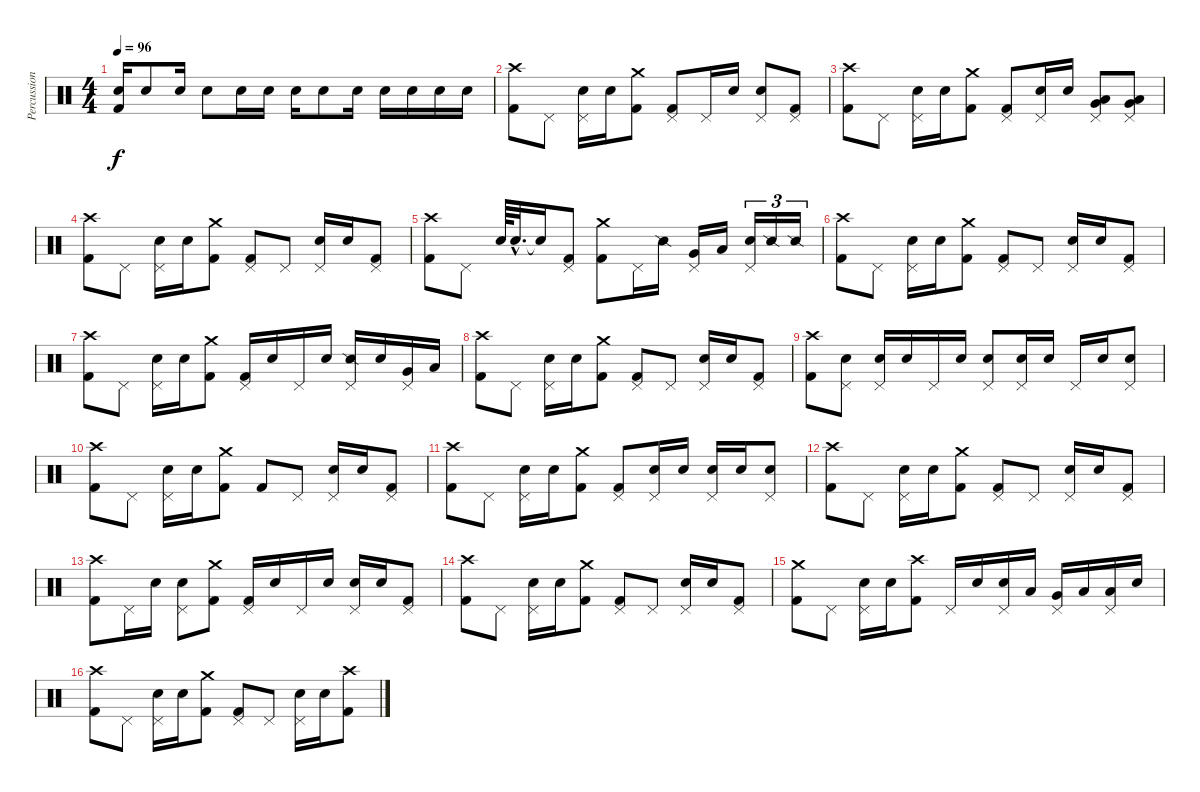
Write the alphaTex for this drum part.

\track ("Percussion" "Percussion") {instrument percussion}
\staff {score}
\articulation defaults
\ts (4 4)
\tempo 96
\clef neutral
\ks c
("Electric Snare (hit)" "Kick (hit) 2").16{dy f} "Electric Snare (hit)".8 "Electric Snare (hit)".16 "Electric Snare (hit)".8 "Electric Snare (hit)".16 "Electric Snare (hit)".16 "Electric Snare (hit)".16 "Electric Snare (hit)".8 "Electric Snare (hit)".16 "Electric Snare (hit)".16 "Electric Snare (hit)".16 "Electric Snare (hit)".16 "Electric Snare (hit)".16 |
("Crash high (hit)" "Kick (hit) 2").8 "Pedal Hi-Hat (hit)".8 ("Pedal Hi-Hat (hit)" "Electric Snare (hit)").16 "Electric Snare (hit)".16 ("Crash medium (hit)" "Kick (hit) 2").8 ("Pedal Hi-Hat (hit)" "Kick (hit) 2").8 "Pedal Hi-Hat (hit)".16 "Electric Snare (hit)".16 ("Pedal Hi-Hat (hit)" "Electric Snare (hit)").8 ("Pedal Hi-Hat (hit)" "Kick (hit) 2").8 |
("Crash high (hit)" "Kick (hit) 2").8 "Pedal Hi-Hat (hit)".8 ("Pedal Hi-Hat (hit)" "Electric Snare (hit)").16 "Electric Snare (hit)".16 ("Crash medium (hit)" "Kick (hit) 2").8 ("Pedal Hi-Hat (hit)" "Kick (hit) 2").8 ("Pedal Hi-Hat (hit)" "Electric Snare (hit)").16 "Electric Snare (hit)".16 ("Pedal Hi-Hat (hit)" "Low Tom (hit)" "Very Low Tom (hit)").8 ("Pedal Hi-Hat (hit)" "Very Low Tom (hit)" "Low Floor Tom (hit)").8 |
("Crash high (hit)" "Kick (hit) 2").8 "Pedal Hi-Hat (hit)".8 ("Pedal Hi-Hat (hit)" "Electric Snare (hit)").16 "Electric Snare (hit)".16 ("Crash medium (hit)" "Kick (hit) 2").8 ("Pedal Hi-Hat (hit)" "Kick (hit) 2").8 "Pedal Hi-Hat (hit)".8 ("Pedal Hi-Hat (hit)" "Electric Snare (hit)").16 "Electric Snare (hit)".16 ("Pedal Hi-Hat (hit)" "Kick (hit) 2").8 |
("Crash high (hit)" "Kick (hit) 2").8 "Pedal Hi-Hat (hit)".8 "Electric Snare (hit)".64 "Electric Snare (hit)"{hac}.32{d} "Snare (hit)"{t}.16 ("Pedal Hi-Hat (hit)" "Kick (hit) 2").8 ("Crash medium (hit)" "Kick (hit) 2").8 "Pedal Hi-Hat (hit)".16 "Snare (side stick) 2".16 ("Pedal Hi-Hat (hit)" "Very Low Tom (hit)").16 "Low Floor Tom (hit)".16 ("Pedal Hi-Hat (hit)" "Electric Snare (hit)").16{tu (3 2)} "Snare (side stick) 2".16{tu (3 2)} "Snare (side stick) 2".16{tu (3 2)} |
("Crash high (hit)" "Kick (hit) 2").8 "Pedal Hi-Hat (hit)".8 ("Pedal Hi-Hat (hit)" "Electric Snare (hit)").16 "Electric Snare (hit)".16 ("Crash medium (hit)" "Kick (hit) 2").8 ("Pedal Hi-Hat (hit)" "Kick (hit) 2").8 "Pedal Hi-Hat (hit)".8 ("Pedal Hi-Hat (hit)" "Electric Snare (hit)").16 "Electric Snare (hit)".16 ("Pedal Hi-Hat (hit)" "Kick (hit) 2").8 |
("Crash high (hit)" "Kick (hit) 2").8 "Pedal Hi-Hat (hit)".8 ("Pedal Hi-Hat (hit)" "Electric Snare (hit)").16 "Electric Snare (hit)".16 ("Crash medium (hit)" "Kick (hit) 2").8 ("Pedal Hi-Hat (hit)" "Kick (hit) 2").16 "Electric Snare (hit)".16 "Pedal Hi-Hat (hit)".16 "Electric Snare (hit)".16 ("Pedal Hi-Hat (hit)" "Snare (side stick) 2").16 "Electric Snare (hit)".16 ("Pedal Hi-Hat (hit)" "Very Low Tom (hit)").16 "Low Floor Tom (hit)".16 |
("Crash high (hit)" "Kick (hit) 2").8 "Pedal Hi-Hat (hit)".8 ("Pedal Hi-Hat (hit)" "Electric Snare (hit)").16 "Electric Snare (hit)".16 ("Crash medium (hit)" "Kick (hit) 2").8 ("Pedal Hi-Hat (hit)" "Kick (hit) 2").8 "Pedal Hi-Hat (hit)".8 ("Pedal Hi-Hat (hit)" "Electric Snare (hit)").16 "Electric Snare (hit)".16 ("Pedal Hi-Hat (hit)" "Kick (hit) 2").8 |
("Crash high (hit)" "Kick (hit) 2").8 ("Pedal Hi-Hat (hit)" "Electric Snare (hit)").8 ("Pedal Hi-Hat (hit)" "Electric Snare (hit)").16 "Electric Snare (hit)".16 "Pedal Hi-Hat (hit)".16 "Electric Snare (hit)".16 ("Pedal Hi-Hat (hit)" "Electric Snare (hit)").8 ("Pedal Hi-Hat (hit)" "Electric Snare (hit)").16 "Electric Snare (hit)".16 "Pedal Hi-Hat (hit)".16 "Electric Snare (hit)".16 ("Pedal Hi-Hat (hit)" "Electric Snare (hit)").8 |
("Crash high (hit)" "Kick (hit) 2").8 "Pedal Hi-Hat (hit)".8 ("Pedal Hi-Hat (hit)" "Electric Snare (hit)").16 "Electric Snare (hit)".16 ("Crash medium (hit)" "Kick (hit) 2").8 "Kick (hit) 2".8 "Pedal Hi-Hat (hit)".8 ("Pedal Hi-Hat (hit)" "Electric Snare (hit)").16 "Electric Snare (hit)".16 ("Pedal Hi-Hat (hit)" "Kick (hit) 2").8 |
("Crash high (hit)" "Kick (hit) 2").8 "Pedal Hi-Hat (hit)".8 ("Pedal Hi-Hat (hit)" "Electric Snare (hit)").16 "Electric Snare (hit)".16 ("Crash medium (hit)" "Kick (hit) 2").8 ("Pedal Hi-Hat (hit)" "Kick (hit) 2").8 ("Pedal Hi-Hat (hit)" "Electric Snare (hit)").16 "Electric Snare (hit)".16 ("Pedal Hi-Hat (hit)" "Electric Snare (hit)").16 "Electric Snare (hit)".16 ("Pedal Hi-Hat (hit)" "Electric Snare (hit)").8 |
("Crash high (hit)" "Kick (hit) 2").8 "Pedal Hi-Hat (hit)".8 ("Pedal Hi-Hat (hit)" "Electric Snare (hit)").16 "Electric Snare (hit)".16 ("Crash medium (hit)" "Kick (hit) 2").8 ("Pedal Hi-Hat (hit)" "Kick (hit) 2").8 "Pedal Hi-Hat (hit)".8 ("Pedal Hi-Hat (hit)" "Electric Snare (hit)").16 "Electric Snare (hit)".16 ("Pedal Hi-Hat (hit)" "Kick (hit) 2").8 |
("Crash high (hit)" "Kick (hit) 2").8 "Pedal Hi-Hat (hit)".16 "Electric Snare (hit)".16 ("Pedal Hi-Hat (hit)" "Electric Snare (hit)").8 ("Crash medium (hit)" "Kick (hit) 2").8 ("Pedal Hi-Hat (hit)" "Kick (hit) 2").16 "Electric Snare (hit)".16 "Pedal Hi-Hat (hit)".16 "Electric Snare (hit)".16 ("Pedal Hi-Hat (hit)" "Electric Snare (hit)").16 "Electric Snare (hit)".16 ("Pedal Hi-Hat (hit)" "Kick (hit) 2").8 |
("Crash high (hit)" "Kick (hit) 2").8 "Pedal Hi-Hat (hit)".8 ("Pedal Hi-Hat (hit)" "Electric Snare (hit)").16 "Electric Snare (hit)".16 ("Crash medium (hit)" "Kick (hit) 2").8 ("Pedal Hi-Hat (hit)" "Kick (hit) 2").8 "Pedal Hi-Hat (hit)".8 ("Pedal Hi-Hat (hit)" "Electric Snare (hit)").16 "Electric Snare (hit)".16 ("Pedal Hi-Hat (hit)" "Kick (hit) 2").8 |
("Crash medium (hit)" "Kick (hit) 2").8 "Pedal Hi-Hat (hit)".8 ("Pedal Hi-Hat (hit)" "Electric Snare (hit)").16 "Electric Snare (hit)".16 ("Crash high (hit)" "Kick (hit) 2").8 "Pedal Hi-Hat (hit)".16 "Electric Snare (hit)".16 ("Pedal Hi-Hat (hit)" "Electric Snare (hit)").16 "Low Tom (hit)".16 ("Pedal Hi-Hat (hit)" "Very Low Tom (hit)").16 "Low Floor Tom (hit)".16 ("Pedal Hi-Hat (hit)" "Low Floor Tom (hit)").16 "Snare (hit)".16 |
("Crash high (hit)" "Kick (hit) 2").8 "Pedal Hi-Hat (hit)".8 ("Pedal Hi-Hat (hit)" "Electric Snare (hit)").16 "Electric Snare (hit)".16 ("Crash medium (hit)" "Kick (hit) 2").8 ("Pedal Hi-Hat (hit)" "Kick (hit) 2").8 "Pedal Hi-Hat (hit)".8 ("Pedal Hi-Hat (hit)" "Electric Snare (hit)").16 "Electric Snare (hit)".16 ("Crash high (hit)" "Kick (hit) 2").8
